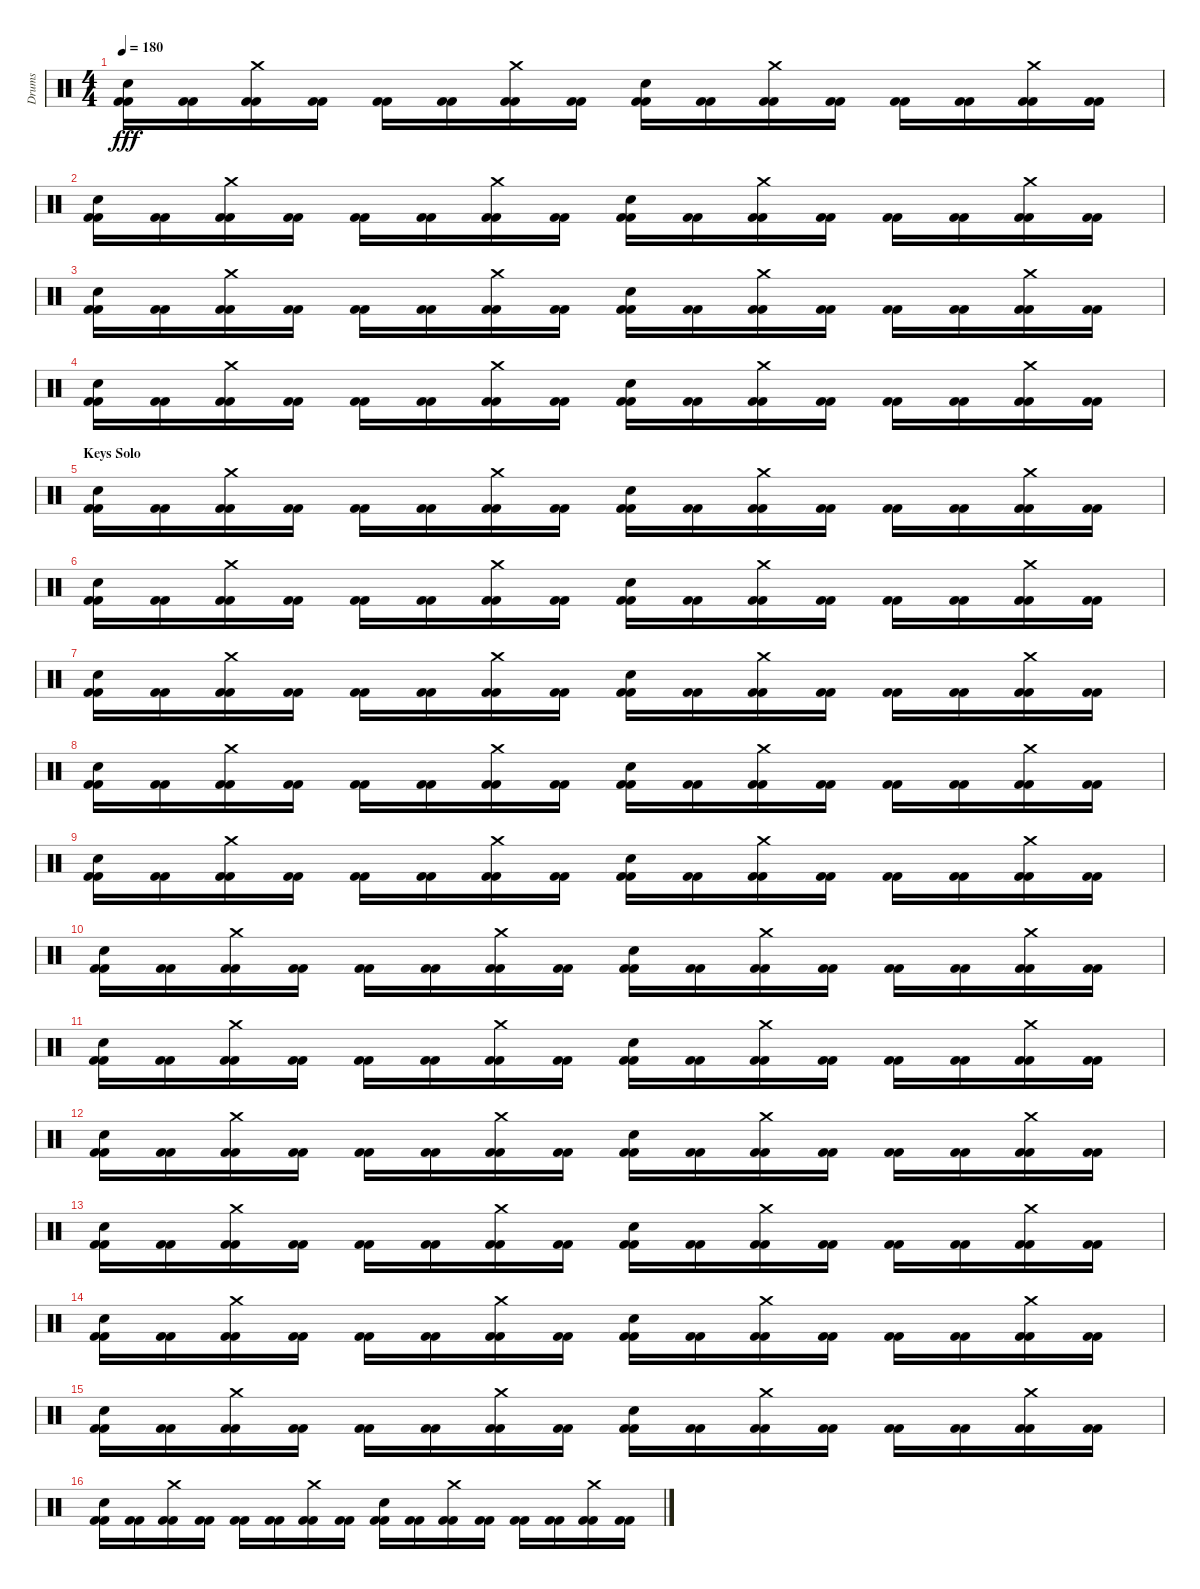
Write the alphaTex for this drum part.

\track ("Drums" "Drums") {instrument percussion}
\staff {score}
\articulation defaults
\ts (4 4)
\tempo 180
\clef neutral
\ks c
("Electric Snare (hit)" "Kick (hit) 2" "Kick (hit) 2").16{dy fff} ("Kick (hit) 2" "Kick (hit) 2").16 ("Crash medium (hit)" "Kick (hit) 2" "Kick (hit) 2").16 ("Kick (hit) 2" "Kick (hit) 2").16 ("Kick (hit) 2" "Kick (hit) 2").16 ("Kick (hit) 2" "Kick (hit) 2").16 ("Crash medium (hit)" "Kick (hit) 2" "Kick (hit) 2").16 ("Kick (hit) 2" "Kick (hit) 2").16 ("Electric Snare (hit)" "Kick (hit) 2" "Kick (hit) 2").16 ("Kick (hit) 2" "Kick (hit) 2").16 ("Crash medium (hit)" "Kick (hit) 2" "Kick (hit) 2").16 ("Kick (hit) 2" "Kick (hit) 2").16 ("Kick (hit) 2" "Kick (hit) 2").16 ("Kick (hit) 2" "Kick (hit) 2").16 ("Crash medium (hit)" "Kick (hit) 2" "Kick (hit) 2").16 ("Kick (hit) 2" "Kick (hit) 2").16 |
("Electric Snare (hit)" "Kick (hit) 2" "Kick (hit) 2").16 ("Kick (hit) 2" "Kick (hit) 2").16 ("Crash medium (hit)" "Kick (hit) 2" "Kick (hit) 2").16 ("Kick (hit) 2" "Kick (hit) 2").16 ("Kick (hit) 2" "Kick (hit) 2").16 ("Kick (hit) 2" "Kick (hit) 2").16 ("Crash medium (hit)" "Kick (hit) 2" "Kick (hit) 2").16 ("Kick (hit) 2" "Kick (hit) 2").16 ("Electric Snare (hit)" "Kick (hit) 2" "Kick (hit) 2").16 ("Kick (hit) 2" "Kick (hit) 2").16 ("Crash medium (hit)" "Kick (hit) 2" "Kick (hit) 2").16 ("Kick (hit) 2" "Kick (hit) 2").16 ("Kick (hit) 2" "Kick (hit) 2").16 ("Kick (hit) 2" "Kick (hit) 2").16 ("Crash medium (hit)" "Kick (hit) 2" "Kick (hit) 2").16 ("Kick (hit) 2" "Kick (hit) 2").16 |
("Electric Snare (hit)" "Kick (hit) 2" "Kick (hit) 2").16 ("Kick (hit) 2" "Kick (hit) 2").16 ("Crash medium (hit)" "Kick (hit) 2" "Kick (hit) 2").16 ("Kick (hit) 2" "Kick (hit) 2").16 ("Kick (hit) 2" "Kick (hit) 2").16 ("Kick (hit) 2" "Kick (hit) 2").16 ("Crash medium (hit)" "Kick (hit) 2" "Kick (hit) 2").16 ("Kick (hit) 2" "Kick (hit) 2").16 ("Electric Snare (hit)" "Kick (hit) 2" "Kick (hit) 2").16 ("Kick (hit) 2" "Kick (hit) 2").16 ("Crash medium (hit)" "Kick (hit) 2" "Kick (hit) 2").16 ("Kick (hit) 2" "Kick (hit) 2").16 ("Kick (hit) 2" "Kick (hit) 2").16 ("Kick (hit) 2" "Kick (hit) 2").16 ("Crash medium (hit)" "Kick (hit) 2" "Kick (hit) 2").16 ("Kick (hit) 2" "Kick (hit) 2").16 |
("Electric Snare (hit)" "Kick (hit) 2" "Kick (hit) 2").16 ("Kick (hit) 2" "Kick (hit) 2").16 ("Crash medium (hit)" "Kick (hit) 2" "Kick (hit) 2").16 ("Kick (hit) 2" "Kick (hit) 2").16 ("Kick (hit) 2" "Kick (hit) 2").16 ("Kick (hit) 2" "Kick (hit) 2").16 ("Crash medium (hit)" "Kick (hit) 2" "Kick (hit) 2").16 ("Kick (hit) 2" "Kick (hit) 2").16 ("Electric Snare (hit)" "Kick (hit) 2" "Kick (hit) 2").16 ("Kick (hit) 2" "Kick (hit) 2").16 ("Crash medium (hit)" "Kick (hit) 2" "Kick (hit) 2").16 ("Kick (hit) 2" "Kick (hit) 2").16 ("Kick (hit) 2" "Kick (hit) 2").16 ("Kick (hit) 2" "Kick (hit) 2").16 ("Crash medium (hit)" "Kick (hit) 2" "Kick (hit) 2").16 ("Kick (hit) 2" "Kick (hit) 2").16 |
\section ("" "Keys Solo")
("Electric Snare (hit)" "Kick (hit) 2" "Kick (hit) 2").16 ("Kick (hit) 2" "Kick (hit) 2").16 ("Crash medium (hit)" "Kick (hit) 2" "Kick (hit) 2").16 ("Kick (hit) 2" "Kick (hit) 2").16 ("Kick (hit) 2" "Kick (hit) 2").16 ("Kick (hit) 2" "Kick (hit) 2").16 ("Crash medium (hit)" "Kick (hit) 2" "Kick (hit) 2").16 ("Kick (hit) 2" "Kick (hit) 2").16 ("Electric Snare (hit)" "Kick (hit) 2" "Kick (hit) 2").16 ("Kick (hit) 2" "Kick (hit) 2").16 ("Crash medium (hit)" "Kick (hit) 2" "Kick (hit) 2").16 ("Kick (hit) 2" "Kick (hit) 2").16 ("Kick (hit) 2" "Kick (hit) 2").16 ("Kick (hit) 2" "Kick (hit) 2").16 ("Crash medium (hit)" "Kick (hit) 2" "Kick (hit) 2").16 ("Kick (hit) 2" "Kick (hit) 2").16 |
("Electric Snare (hit)" "Kick (hit) 2" "Kick (hit) 2").16 ("Kick (hit) 2" "Kick (hit) 2").16 ("Crash medium (hit)" "Kick (hit) 2" "Kick (hit) 2").16 ("Kick (hit) 2" "Kick (hit) 2").16 ("Kick (hit) 2" "Kick (hit) 2").16 ("Kick (hit) 2" "Kick (hit) 2").16 ("Crash medium (hit)" "Kick (hit) 2" "Kick (hit) 2").16 ("Kick (hit) 2" "Kick (hit) 2").16 ("Electric Snare (hit)" "Kick (hit) 2" "Kick (hit) 2").16 ("Kick (hit) 2" "Kick (hit) 2").16 ("Crash medium (hit)" "Kick (hit) 2" "Kick (hit) 2").16 ("Kick (hit) 2" "Kick (hit) 2").16 ("Kick (hit) 2" "Kick (hit) 2").16 ("Kick (hit) 2" "Kick (hit) 2").16 ("Crash medium (hit)" "Kick (hit) 2" "Kick (hit) 2").16 ("Kick (hit) 2" "Kick (hit) 2").16 |
("Electric Snare (hit)" "Kick (hit) 2" "Kick (hit) 2").16 ("Kick (hit) 2" "Kick (hit) 2").16 ("Crash medium (hit)" "Kick (hit) 2" "Kick (hit) 2").16 ("Kick (hit) 2" "Kick (hit) 2").16 ("Kick (hit) 2" "Kick (hit) 2").16 ("Kick (hit) 2" "Kick (hit) 2").16 ("Crash medium (hit)" "Kick (hit) 2" "Kick (hit) 2").16 ("Kick (hit) 2" "Kick (hit) 2").16 ("Electric Snare (hit)" "Kick (hit) 2" "Kick (hit) 2").16 ("Kick (hit) 2" "Kick (hit) 2").16 ("Crash medium (hit)" "Kick (hit) 2" "Kick (hit) 2").16 ("Kick (hit) 2" "Kick (hit) 2").16 ("Kick (hit) 2" "Kick (hit) 2").16 ("Kick (hit) 2" "Kick (hit) 2").16 ("Crash medium (hit)" "Kick (hit) 2" "Kick (hit) 2").16 ("Kick (hit) 2" "Kick (hit) 2").16 |
("Electric Snare (hit)" "Kick (hit) 2" "Kick (hit) 2").16 ("Kick (hit) 2" "Kick (hit) 2").16 ("Crash medium (hit)" "Kick (hit) 2" "Kick (hit) 2").16 ("Kick (hit) 2" "Kick (hit) 2").16 ("Kick (hit) 2" "Kick (hit) 2").16 ("Kick (hit) 2" "Kick (hit) 2").16 ("Crash medium (hit)" "Kick (hit) 2" "Kick (hit) 2").16 ("Kick (hit) 2" "Kick (hit) 2").16 ("Electric Snare (hit)" "Kick (hit) 2" "Kick (hit) 2").16 ("Kick (hit) 2" "Kick (hit) 2").16 ("Crash medium (hit)" "Kick (hit) 2" "Kick (hit) 2").16 ("Kick (hit) 2" "Kick (hit) 2").16 ("Kick (hit) 2" "Kick (hit) 2").16 ("Kick (hit) 2" "Kick (hit) 2").16 ("Crash medium (hit)" "Kick (hit) 2" "Kick (hit) 2").16 ("Kick (hit) 2" "Kick (hit) 2").16 |
("Electric Snare (hit)" "Kick (hit) 2" "Kick (hit) 2").16 ("Kick (hit) 2" "Kick (hit) 2").16 ("Crash medium (hit)" "Kick (hit) 2" "Kick (hit) 2").16 ("Kick (hit) 2" "Kick (hit) 2").16 ("Kick (hit) 2" "Kick (hit) 2").16 ("Kick (hit) 2" "Kick (hit) 2").16 ("Crash medium (hit)" "Kick (hit) 2" "Kick (hit) 2").16 ("Kick (hit) 2" "Kick (hit) 2").16 ("Electric Snare (hit)" "Kick (hit) 2" "Kick (hit) 2").16 ("Kick (hit) 2" "Kick (hit) 2").16 ("Crash medium (hit)" "Kick (hit) 2" "Kick (hit) 2").16 ("Kick (hit) 2" "Kick (hit) 2").16 ("Kick (hit) 2" "Kick (hit) 2").16 ("Kick (hit) 2" "Kick (hit) 2").16 ("Crash medium (hit)" "Kick (hit) 2" "Kick (hit) 2").16 ("Kick (hit) 2" "Kick (hit) 2").16 |
("Electric Snare (hit)" "Kick (hit) 2" "Kick (hit) 2").16 ("Kick (hit) 2" "Kick (hit) 2").16 ("Crash medium (hit)" "Kick (hit) 2" "Kick (hit) 2").16 ("Kick (hit) 2" "Kick (hit) 2").16 ("Kick (hit) 2" "Kick (hit) 2").16 ("Kick (hit) 2" "Kick (hit) 2").16 ("Crash medium (hit)" "Kick (hit) 2" "Kick (hit) 2").16 ("Kick (hit) 2" "Kick (hit) 2").16 ("Electric Snare (hit)" "Kick (hit) 2" "Kick (hit) 2").16 ("Kick (hit) 2" "Kick (hit) 2").16 ("Crash medium (hit)" "Kick (hit) 2" "Kick (hit) 2").16 ("Kick (hit) 2" "Kick (hit) 2").16 ("Kick (hit) 2" "Kick (hit) 2").16 ("Kick (hit) 2" "Kick (hit) 2").16 ("Crash medium (hit)" "Kick (hit) 2" "Kick (hit) 2").16 ("Kick (hit) 2" "Kick (hit) 2").16 |
("Electric Snare (hit)" "Kick (hit) 2" "Kick (hit) 2").16 ("Kick (hit) 2" "Kick (hit) 2").16 ("Crash medium (hit)" "Kick (hit) 2" "Kick (hit) 2").16 ("Kick (hit) 2" "Kick (hit) 2").16 ("Kick (hit) 2" "Kick (hit) 2").16 ("Kick (hit) 2" "Kick (hit) 2").16 ("Crash medium (hit)" "Kick (hit) 2" "Kick (hit) 2").16 ("Kick (hit) 2" "Kick (hit) 2").16 ("Electric Snare (hit)" "Kick (hit) 2" "Kick (hit) 2").16 ("Kick (hit) 2" "Kick (hit) 2").16 ("Crash medium (hit)" "Kick (hit) 2" "Kick (hit) 2").16 ("Kick (hit) 2" "Kick (hit) 2").16 ("Kick (hit) 2" "Kick (hit) 2").16 ("Kick (hit) 2" "Kick (hit) 2").16 ("Crash medium (hit)" "Kick (hit) 2" "Kick (hit) 2").16 ("Kick (hit) 2" "Kick (hit) 2").16 |
("Electric Snare (hit)" "Kick (hit) 2" "Kick (hit) 2").16 ("Kick (hit) 2" "Kick (hit) 2").16 ("Crash medium (hit)" "Kick (hit) 2" "Kick (hit) 2").16 ("Kick (hit) 2" "Kick (hit) 2").16 ("Kick (hit) 2" "Kick (hit) 2").16 ("Kick (hit) 2" "Kick (hit) 2").16 ("Crash medium (hit)" "Kick (hit) 2" "Kick (hit) 2").16 ("Kick (hit) 2" "Kick (hit) 2").16 ("Electric Snare (hit)" "Kick (hit) 2" "Kick (hit) 2").16 ("Kick (hit) 2" "Kick (hit) 2").16 ("Crash medium (hit)" "Kick (hit) 2" "Kick (hit) 2").16 ("Kick (hit) 2" "Kick (hit) 2").16 ("Kick (hit) 2" "Kick (hit) 2").16 ("Kick (hit) 2" "Kick (hit) 2").16 ("Crash medium (hit)" "Kick (hit) 2" "Kick (hit) 2").16 ("Kick (hit) 2" "Kick (hit) 2").16 |
("Electric Snare (hit)" "Kick (hit) 2" "Kick (hit) 2").16 ("Kick (hit) 2" "Kick (hit) 2").16 ("Crash medium (hit)" "Kick (hit) 2" "Kick (hit) 2").16 ("Kick (hit) 2" "Kick (hit) 2").16 ("Kick (hit) 2" "Kick (hit) 2").16 ("Kick (hit) 2" "Kick (hit) 2").16 ("Crash medium (hit)" "Kick (hit) 2" "Kick (hit) 2").16 ("Kick (hit) 2" "Kick (hit) 2").16 ("Electric Snare (hit)" "Kick (hit) 2" "Kick (hit) 2").16 ("Kick (hit) 2" "Kick (hit) 2").16 ("Crash medium (hit)" "Kick (hit) 2" "Kick (hit) 2").16 ("Kick (hit) 2" "Kick (hit) 2").16 ("Kick (hit) 2" "Kick (hit) 2").16 ("Kick (hit) 2" "Kick (hit) 2").16 ("Crash medium (hit)" "Kick (hit) 2" "Kick (hit) 2").16 ("Kick (hit) 2" "Kick (hit) 2").16 |
("Electric Snare (hit)" "Kick (hit) 2" "Kick (hit) 2").16 ("Kick (hit) 2" "Kick (hit) 2").16 ("Crash medium (hit)" "Kick (hit) 2" "Kick (hit) 2").16 ("Kick (hit) 2" "Kick (hit) 2").16 ("Kick (hit) 2" "Kick (hit) 2").16 ("Kick (hit) 2" "Kick (hit) 2").16 ("Crash medium (hit)" "Kick (hit) 2" "Kick (hit) 2").16 ("Kick (hit) 2" "Kick (hit) 2").16 ("Electric Snare (hit)" "Kick (hit) 2" "Kick (hit) 2").16 ("Kick (hit) 2" "Kick (hit) 2").16 ("Crash medium (hit)" "Kick (hit) 2" "Kick (hit) 2").16 ("Kick (hit) 2" "Kick (hit) 2").16 ("Kick (hit) 2" "Kick (hit) 2").16 ("Kick (hit) 2" "Kick (hit) 2").16 ("Crash medium (hit)" "Kick (hit) 2" "Kick (hit) 2").16 ("Kick (hit) 2" "Kick (hit) 2").16 |
("Electric Snare (hit)" "Kick (hit) 2" "Kick (hit) 2").16 ("Kick (hit) 2" "Kick (hit) 2").16 ("Crash medium (hit)" "Kick (hit) 2" "Kick (hit) 2").16 ("Kick (hit) 2" "Kick (hit) 2").16 ("Kick (hit) 2" "Kick (hit) 2").16 ("Kick (hit) 2" "Kick (hit) 2").16 ("Crash medium (hit)" "Kick (hit) 2" "Kick (hit) 2").16 ("Kick (hit) 2" "Kick (hit) 2").16 ("Electric Snare (hit)" "Kick (hit) 2" "Kick (hit) 2").16 ("Kick (hit) 2" "Kick (hit) 2").16 ("Crash medium (hit)" "Kick (hit) 2" "Kick (hit) 2").16 ("Kick (hit) 2" "Kick (hit) 2").16 ("Kick (hit) 2" "Kick (hit) 2").16 ("Kick (hit) 2" "Kick (hit) 2").16 ("Crash medium (hit)" "Kick (hit) 2" "Kick (hit) 2").16 ("Kick (hit) 2" "Kick (hit) 2").16 |
("Electric Snare (hit)" "Kick (hit) 2" "Kick (hit) 2").16 ("Kick (hit) 2" "Kick (hit) 2").16 ("Crash medium (hit)" "Kick (hit) 2" "Kick (hit) 2").16 ("Kick (hit) 2" "Kick (hit) 2").16 ("Kick (hit) 2" "Kick (hit) 2").16 ("Kick (hit) 2" "Kick (hit) 2").16 ("Crash medium (hit)" "Kick (hit) 2" "Kick (hit) 2").16 ("Kick (hit) 2" "Kick (hit) 2").16 ("Electric Snare (hit)" "Kick (hit) 2" "Kick (hit) 2").16 ("Kick (hit) 2" "Kick (hit) 2").16 ("Crash medium (hit)" "Kick (hit) 2" "Kick (hit) 2").16 ("Kick (hit) 2" "Kick (hit) 2").16 ("Kick (hit) 2" "Kick (hit) 2").16 ("Kick (hit) 2" "Kick (hit) 2").16 ("Crash medium (hit)" "Kick (hit) 2" "Kick (hit) 2").16 ("Kick (hit) 2" "Kick (hit) 2").16
